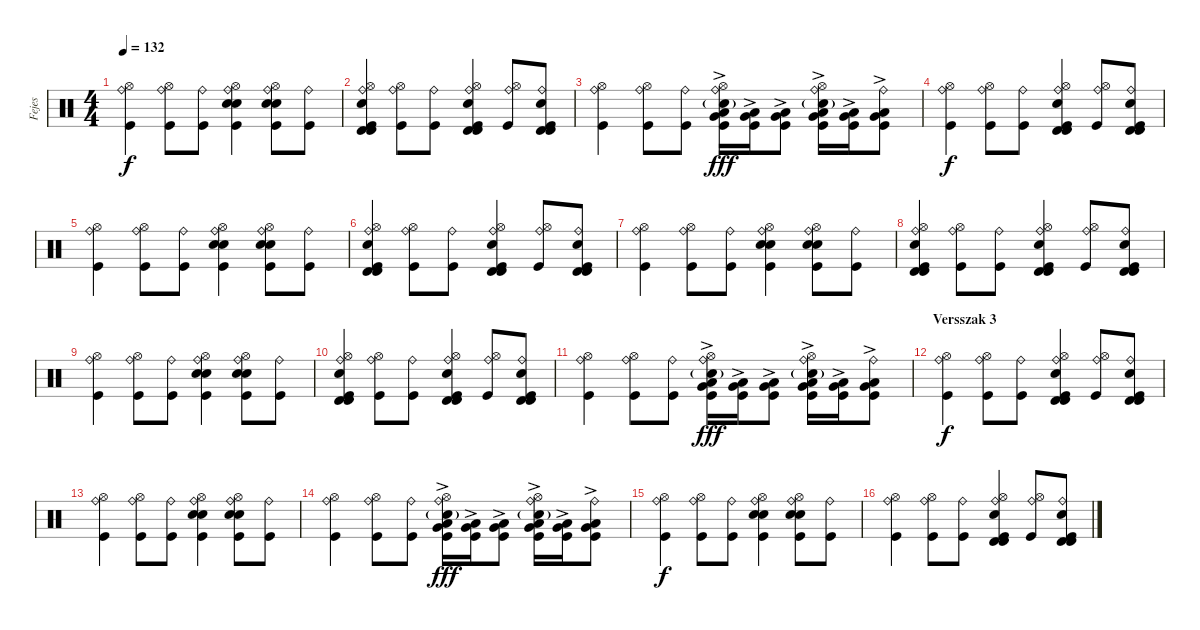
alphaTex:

\track ("Fejes" "Fejes") {instrument percussion}
\staff {score}
\articulation defaults
\ts (4 4)
\tempo 132
\clef neutral
\ks c
("Ride (bell)" "Hi-Hat (open)" "Kick (hit)").4{dy f} ("Ride (bell)" "Hi-Hat (open)" "Kick (hit)").8 ("Ride (bell)" "Kick (hit)").8 ("Ride (bell)" "Hi-Hat (open)" "Snare (hit) 2" "Snare (hit) 2" "Kick (hit)").4 ("Ride (bell)" "Hi-Hat (open)" "Snare (hit) 2" "Snare (hit) 2" "Kick (hit)").8 ("Ride (bell)" "Kick (hit)").8 |
("Ride (bell)" "Hi-Hat (open)" "Snare (hit) 2" "Timbale high (hit)" "Timbale high (hit)" "Kick (hit)").4 ("Ride (bell)" "Hi-Hat (open)" "Kick (hit)").8 ("Ride (bell)" "Kick (hit)").8 ("Ride (bell)" "Hi-Hat (open)" "Snare (hit) 2" "Timbale high (hit)" "Timbale high (hit)" "Kick (hit)").4 ("Ride (bell)" "Hi-Hat (open)" "Kick (hit)").8 ("Ride (bell)" "Snare (hit) 2" "Timbale high (hit)" "Timbale high (hit)" "Kick (hit)").8 |
("Ride (bell)" "Hi-Hat (open)" "Kick (hit)").4 ("Ride (bell)" "Hi-Hat (open)" "Kick (hit)").8 ("Ride (bell)" "Kick (hit)").8 ("Ride (bell)" "Hi-Hat (open)" "Snare (hit) 2"{g} "Low Floor Tom (hit)"{ac} "Very Low Tom (hit)"{ac} "Kick (hit)").16{dy fff} ("Low Floor Tom (hit)"{ac} "Very Low Tom (hit)"{ac} "Kick (hit)").16 ("Low Floor Tom (hit)"{ac} "Very Low Tom (hit)"{ac} "Kick (hit)").8 ("Ride (bell)" "Hi-Hat (open)" "Snare (hit) 2"{g} "Low Floor Tom (hit)"{ac} "Very Low Tom (hit)"{ac} "Kick (hit)").16 ("Low Floor Tom (hit)"{ac} "Very Low Tom (hit)"{ac} "Kick (hit)").16 ("Ride (bell)" "Low Floor Tom (hit)"{ac} "Very Low Tom (hit)"{ac} "Kick (hit)").8 |
("Ride (bell)" "Hi-Hat (open)" "Kick (hit)").4{dy f} ("Ride (bell)" "Hi-Hat (open)" "Kick (hit)").8 ("Ride (bell)" "Kick (hit)").8 ("Ride (bell)" "Hi-Hat (open)" "Snare (hit) 2" "Timbale high (hit)" "Timbale high (hit)" "Kick (hit)").4 ("Ride (bell)" "Hi-Hat (open)" "Kick (hit)").8 ("Ride (bell)" "Snare (hit) 2" "Timbale high (hit)" "Timbale high (hit)" "Kick (hit)").8 |
("Ride (bell)" "Hi-Hat (open)" "Kick (hit)").4 ("Ride (bell)" "Hi-Hat (open)" "Kick (hit)").8 ("Ride (bell)" "Kick (hit)").8 ("Ride (bell)" "Hi-Hat (open)" "Snare (hit) 2" "Snare (hit) 2" "Kick (hit)").4 ("Ride (bell)" "Hi-Hat (open)" "Snare (hit) 2" "Snare (hit) 2" "Kick (hit)").8 ("Ride (bell)" "Kick (hit)").8 |
("Ride (bell)" "Hi-Hat (open)" "Snare (hit) 2" "Timbale high (hit)" "Timbale high (hit)" "Kick (hit)").4 ("Ride (bell)" "Hi-Hat (open)" "Kick (hit)").8 ("Ride (bell)" "Kick (hit)").8 ("Ride (bell)" "Hi-Hat (open)" "Snare (hit) 2" "Timbale high (hit)" "Timbale high (hit)" "Kick (hit)").4 ("Ride (bell)" "Hi-Hat (open)" "Kick (hit)").8 ("Ride (bell)" "Snare (hit) 2" "Timbale high (hit)" "Timbale high (hit)" "Kick (hit)").8 |
("Ride (bell)" "Hi-Hat (open)" "Kick (hit)").4 ("Ride (bell)" "Hi-Hat (open)" "Kick (hit)").8 ("Ride (bell)" "Kick (hit)").8 ("Ride (bell)" "Hi-Hat (open)" "Snare (hit) 2" "Snare (hit) 2" "Kick (hit)").4 ("Ride (bell)" "Hi-Hat (open)" "Snare (hit) 2" "Snare (hit) 2" "Kick (hit)").8 ("Ride (bell)" "Kick (hit)").8 |
("Ride (bell)" "Hi-Hat (open)" "Snare (hit) 2" "Timbale high (hit)" "Timbale high (hit)" "Kick (hit)").4 ("Ride (bell)" "Hi-Hat (open)" "Kick (hit)").8 ("Ride (bell)" "Kick (hit)").8 ("Ride (bell)" "Hi-Hat (open)" "Snare (hit) 2" "Timbale high (hit)" "Timbale high (hit)" "Kick (hit)").4 ("Ride (bell)" "Hi-Hat (open)" "Kick (hit)").8 ("Ride (bell)" "Snare (hit) 2" "Timbale high (hit)" "Timbale high (hit)" "Kick (hit)").8 |
("Ride (bell)" "Hi-Hat (open)" "Kick (hit)").4 ("Ride (bell)" "Hi-Hat (open)" "Kick (hit)").8 ("Ride (bell)" "Kick (hit)").8 ("Ride (bell)" "Hi-Hat (open)" "Snare (hit) 2" "Snare (hit) 2" "Kick (hit)").4 ("Ride (bell)" "Hi-Hat (open)" "Snare (hit) 2" "Snare (hit) 2" "Kick (hit)").8 ("Ride (bell)" "Kick (hit)").8 |
("Ride (bell)" "Hi-Hat (open)" "Snare (hit) 2" "Timbale high (hit)" "Timbale high (hit)" "Kick (hit)").4 ("Ride (bell)" "Hi-Hat (open)" "Kick (hit)").8 ("Ride (bell)" "Kick (hit)").8 ("Ride (bell)" "Hi-Hat (open)" "Snare (hit) 2" "Timbale high (hit)" "Timbale high (hit)" "Kick (hit)").4 ("Ride (bell)" "Hi-Hat (open)" "Kick (hit)").8 ("Ride (bell)" "Snare (hit) 2" "Timbale high (hit)" "Timbale high (hit)" "Kick (hit)").8 |
("Ride (bell)" "Hi-Hat (open)" "Kick (hit)").4 ("Ride (bell)" "Hi-Hat (open)" "Kick (hit)").8 ("Ride (bell)" "Kick (hit)").8 ("Ride (bell)" "Hi-Hat (open)" "Snare (hit) 2"{g} "Low Floor Tom (hit)"{ac} "Very Low Tom (hit)"{ac} "Kick (hit)").16{dy fff} ("Low Floor Tom (hit)"{ac} "Very Low Tom (hit)"{ac} "Kick (hit)").16 ("Low Floor Tom (hit)"{ac} "Very Low Tom (hit)"{ac} "Kick (hit)").8 ("Ride (bell)" "Hi-Hat (open)" "Snare (hit) 2"{g} "Low Floor Tom (hit)"{ac} "Very Low Tom (hit)"{ac} "Kick (hit)").16 ("Low Floor Tom (hit)"{ac} "Very Low Tom (hit)"{ac} "Kick (hit)").16 ("Ride (bell)" "Low Floor Tom (hit)"{ac} "Very Low Tom (hit)"{ac} "Kick (hit)").8 |
\section ("" "Versszak 3")
("Ride (bell)" "Hi-Hat (open)" "Kick (hit)").4{dy f} ("Ride (bell)" "Hi-Hat (open)" "Kick (hit)").8 ("Ride (bell)" "Kick (hit)").8 ("Ride (bell)" "Hi-Hat (open)" "Snare (hit) 2" "Timbale high (hit)" "Timbale high (hit)" "Kick (hit)").4 ("Ride (bell)" "Hi-Hat (open)" "Kick (hit)").8 ("Ride (bell)" "Snare (hit) 2" "Timbale high (hit)" "Timbale high (hit)" "Kick (hit)").8 |
("Ride (bell)" "Hi-Hat (open)" "Kick (hit)").4 ("Ride (bell)" "Hi-Hat (open)" "Kick (hit)").8 ("Ride (bell)" "Kick (hit)").8 ("Ride (bell)" "Hi-Hat (open)" "Snare (hit) 2" "Snare (hit) 2" "Kick (hit)").4 ("Ride (bell)" "Hi-Hat (open)" "Snare (hit) 2" "Snare (hit) 2" "Kick (hit)").8 ("Ride (bell)" "Kick (hit)").8 |
("Ride (bell)" "Hi-Hat (open)" "Kick (hit)").4 ("Ride (bell)" "Hi-Hat (open)" "Kick (hit)").8 ("Ride (bell)" "Kick (hit)").8 ("Ride (bell)" "Hi-Hat (open)" "Snare (hit) 2"{g} "Low Floor Tom (hit)"{ac} "Very Low Tom (hit)"{ac} "Kick (hit)").16{dy fff} ("Low Floor Tom (hit)"{ac} "Very Low Tom (hit)"{ac} "Kick (hit)").16 ("Low Floor Tom (hit)"{ac} "Very Low Tom (hit)"{ac} "Kick (hit)").8 ("Ride (bell)" "Hi-Hat (open)" "Snare (hit) 2"{g} "Low Floor Tom (hit)"{ac} "Very Low Tom (hit)"{ac} "Kick (hit)").16 ("Low Floor Tom (hit)"{ac} "Very Low Tom (hit)"{ac} "Kick (hit)").16 ("Ride (bell)" "Low Floor Tom (hit)"{ac} "Very Low Tom (hit)"{ac} "Kick (hit)").8 |
("Ride (bell)" "Hi-Hat (open)" "Kick (hit)").4{dy f} ("Ride (bell)" "Hi-Hat (open)" "Kick (hit)").8 ("Ride (bell)" "Kick (hit)").8 ("Ride (bell)" "Hi-Hat (open)" "Snare (hit) 2" "Snare (hit) 2" "Kick (hit)").4 ("Ride (bell)" "Hi-Hat (open)" "Snare (hit) 2" "Snare (hit) 2" "Kick (hit)").8 ("Ride (bell)" "Kick (hit)").8 |
("Ride (bell)" "Hi-Hat (open)" "Kick (hit)").4 ("Ride (bell)" "Hi-Hat (open)" "Kick (hit)").8 ("Ride (bell)" "Kick (hit)").8 ("Ride (bell)" "Hi-Hat (open)" "Snare (hit) 2" "Timbale high (hit)" "Timbale high (hit)" "Kick (hit)").4 ("Ride (bell)" "Hi-Hat (open)" "Kick (hit)").8 ("Ride (bell)" "Snare (hit) 2" "Timbale high (hit)" "Timbale high (hit)" "Kick (hit)").8
